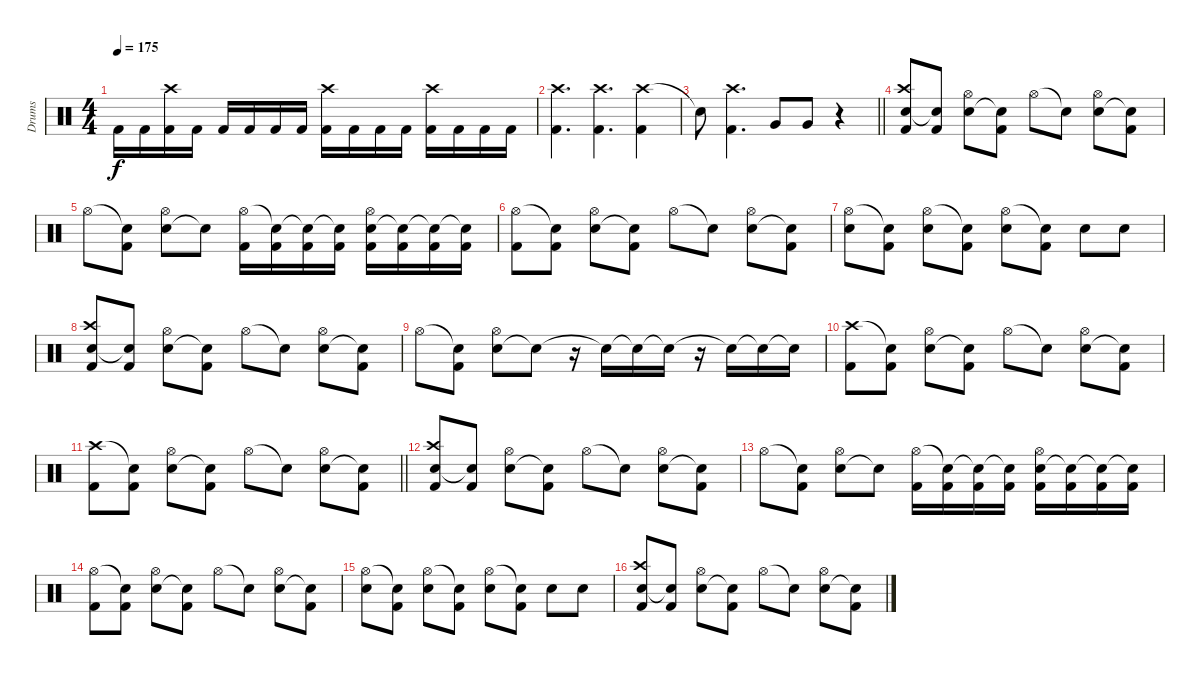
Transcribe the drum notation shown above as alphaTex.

\track ("Drums" "Drums") {instrument percussion}
\staff {score}
\articulation defaults
\ts (4 4)
\tempo 175
\clef neutral
\ks c "Kick (hit) 2".16{dy f} "Kick (hit) 2".16
("Crash high (hit)" "Kick (hit) 2").16 "Kick (hit) 2".16 "Kick (hit) 2".16 "Kick (hit) 2".16 "Kick (hit) 2".16 "Kick (hit) 2".16 ("Crash high (hit)" "Kick (hit) 2").16 "Kick (hit) 2".16 "Kick (hit) 2".16 "Kick (hit) 2".16 ("Crash high (hit)" "Kick (hit) 2").16 "Kick (hit) 2".16 "Kick (hit) 2".16 "Kick (hit) 2".16 |
("Crash high (hit)" "Kick (hit) 2").4{d} ("Crash high (hit)" "Kick (hit) 2").4{d} ("Crash high (hit)" "Kick (hit) 2").4 |
\barLineRight lightlight "Snare (hit)"{t}.8
("Crash high (hit)" "Kick (hit) 2").4{d} "Very Low Tom (hit)".8 "Very Low Tom (hit)".8 r.4 |
("Snare (hit) 2" "Crash high (hit)" "Kick (hit) 2").8 ("Snare (hit)"{t} "Kick (hit) 2").8 ("Snare (hit) 2" "Hi-Hat (open)").8 ("Snare (hit)"{t} "Kick (hit) 2").8 "Hi-Hat (open)".8 "Snare (hit)"{t}.8 ("Snare (hit) 2" "Hi-Hat (open)").8 ("Snare (hit)"{t} "Kick (hit) 2").8 |
"Hi-Hat (open)".8 ("Snare (hit)"{t} "Kick (hit) 2").8 ("Snare (hit) 2" "Hi-Hat (open)").8 "Snare (hit)"{t}.8 ("Hi-Hat (open)" "Kick (hit) 2").16 ("Snare (hit)"{t} "Kick (hit) 2").16 ("Snare (hit)"{t} "Kick (hit) 2").16 ("Snare (hit)"{t} "Kick (hit) 2").16 ("Snare (hit) 2" "Hi-Hat (open)" "Kick (hit) 2").16 ("Snare (hit)"{t} "Kick (hit) 2").16 ("Snare (hit)"{t} "Kick (hit) 2").16 ("Snare (hit)"{t} "Kick (hit) 2").16 |
("Hi-Hat (open)" "Kick (hit) 2").8 ("Snare (hit)"{t} "Kick (hit) 2").8 ("Snare (hit) 2" "Hi-Hat (open)").8 ("Snare (hit)"{t} "Kick (hit) 2").8 "Hi-Hat (open)".8 "Snare (hit)"{t}.8 ("Snare (hit) 2" "Hi-Hat (open)").8 ("Snare (hit)"{t} "Kick (hit) 2").8 |
("Hi-Hat (open)" "Snare (hit) 2").8 ("Snare (hit)"{t} "Kick (hit) 2").8 ("Hi-Hat (open)" "Snare (hit) 2").8 ("Snare (hit)"{t} "Kick (hit) 2").8 ("Hi-Hat (open)" "Snare (hit) 2").8 ("Snare (hit)"{t} "Kick (hit) 2").8 "Snare (hit) 2".8 "Snare (hit) 2".8 |
("Snare (hit) 2" "Crash high (hit)" "Kick (hit) 2").8 ("Snare (hit)"{t} "Kick (hit) 2").8 ("Snare (hit) 2" "Hi-Hat (open)").8 ("Snare (hit)"{t} "Kick (hit) 2").8 "Hi-Hat (open)".8 "Snare (hit)"{t}.8 ("Snare (hit) 2" "Hi-Hat (open)").8 ("Snare (hit)"{t} "Kick (hit) 2").8 |
"Hi-Hat (open)".8 ("Snare (hit)"{t} "Kick (hit) 2").8 ("Snare (hit) 2" "Hi-Hat (open)").8 "Snare (hit)"{t}.8 r.16 "Snare (hit)"{t}.16 "Snare (hit)"{t}.16 "Snare (hit)"{t}.16 r.16 "Snare (hit)"{t}.16 "Snare (hit)"{t}.16 "Snare (hit)"{t}.16 |
("Crash high (hit)" "Kick (hit) 2").8 ("Snare (hit)"{t} "Kick (hit) 2").8 ("Snare (hit) 2" "Hi-Hat (open)").8 ("Snare (hit)"{t} "Kick (hit) 2").8 "Hi-Hat (open)".8 "Snare (hit)"{t}.8 ("Snare (hit) 2" "Hi-Hat (open)").8 ("Snare (hit)"{t} "Kick (hit) 2").8 |
\barLineRight lightlight
("Crash high (hit)" "Kick (hit) 2").8 ("Snare (hit)"{t} "Kick (hit) 2").8 ("Snare (hit) 2" "Hi-Hat (open)").8 ("Snare (hit)"{t} "Kick (hit) 2").8 "Hi-Hat (open)".8 "Snare (hit)"{t}.8 ("Snare (hit) 2" "Hi-Hat (open)").8 ("Snare (hit)"{t} "Kick (hit) 2").8 |
("Snare (hit) 2" "Crash high (hit)" "Kick (hit) 2").8 ("Snare (hit)"{t} "Kick (hit) 2").8 ("Snare (hit) 2" "Hi-Hat (open)").8 ("Snare (hit)"{t} "Kick (hit) 2").8 "Hi-Hat (open)".8 "Snare (hit)"{t}.8 ("Snare (hit) 2" "Hi-Hat (open)").8 ("Snare (hit)"{t} "Kick (hit) 2").8 |
"Hi-Hat (open)".8 ("Snare (hit)"{t} "Kick (hit) 2").8 ("Snare (hit) 2" "Hi-Hat (open)").8 "Snare (hit)"{t}.8 ("Hi-Hat (open)" "Kick (hit) 2").16 ("Snare (hit)"{t} "Kick (hit) 2").16 ("Snare (hit)"{t} "Kick (hit) 2").16 ("Snare (hit)"{t} "Kick (hit) 2").16 ("Snare (hit) 2" "Hi-Hat (open)" "Kick (hit) 2").16 ("Snare (hit)"{t} "Kick (hit) 2").16 ("Snare (hit)"{t} "Kick (hit) 2").16 ("Snare (hit)"{t} "Kick (hit) 2").16 |
("Hi-Hat (open)" "Kick (hit) 2").8 ("Snare (hit)"{t} "Kick (hit) 2").8 ("Snare (hit) 2" "Hi-Hat (open)").8 ("Snare (hit)"{t} "Kick (hit) 2").8 "Hi-Hat (open)".8 "Snare (hit)"{t}.8 ("Snare (hit) 2" "Hi-Hat (open)").8 ("Snare (hit)"{t} "Kick (hit) 2").8 |
("Hi-Hat (open)" "Snare (hit) 2").8 ("Snare (hit)"{t} "Kick (hit) 2").8 ("Hi-Hat (open)" "Snare (hit) 2").8 ("Snare (hit)"{t} "Kick (hit) 2").8 ("Hi-Hat (open)" "Snare (hit) 2").8 ("Snare (hit)"{t} "Kick (hit) 2").8 "Snare (hit) 2".8 "Snare (hit) 2".8 |
("Snare (hit) 2" "Crash high (hit)" "Kick (hit) 2").8 ("Snare (hit)"{t} "Kick (hit) 2").8 ("Snare (hit) 2" "Hi-Hat (open)").8 ("Snare (hit)"{t} "Kick (hit) 2").8 "Hi-Hat (open)".8 "Snare (hit)"{t}.8 ("Snare (hit) 2" "Hi-Hat (open)").8 ("Snare (hit)"{t} "Kick (hit) 2").8
